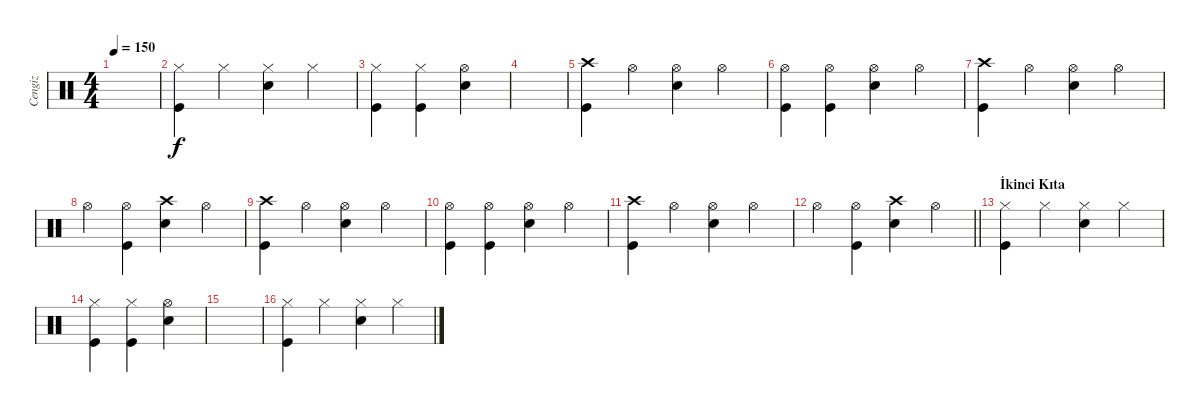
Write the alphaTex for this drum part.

\track ("Cengiz" "Cengiz") {instrument percussion}
\staff {score}
\articulation defaults
\ts (4 4)
\tempo 150
\clef neutral
\ks c
|
("Hi-Hat (closed)" "Kick (hit)").4 "Hi-Hat (closed)".4 ("Hi-Hat (closed)" "Snare (hit) 2").4 "Hi-Hat (closed)".4 |
("Hi-Hat (closed)" "Kick (hit)").4 ("Hi-Hat (closed)" "Kick (hit)").4 ("Hi-Hat (open)" "Snare (hit) 2").4 |
|
("Crash high (hit)" "Kick (hit)").4 "Hi-Hat (open)".4 ("Hi-Hat (open)" "Snare (hit) 2").4 "Hi-Hat (open)".4 |
("Hi-Hat (open)" "Kick (hit)").4 ("Hi-Hat (open)" "Kick (hit)").4 ("Hi-Hat (open)" "Snare (hit) 2").4 "Hi-Hat (open)".4 |
("Crash high (hit)" "Kick (hit)").4 "Hi-Hat (open)".4 ("Hi-Hat (open)" "Snare (hit) 2").4 "Hi-Hat (open)".4 |
"Hi-Hat (open)".4 ("Hi-Hat (open)" "Kick (hit)").4 ("Crash high (hit)" "Snare (hit) 2").4 "Hi-Hat (open)".4 |
("Crash high (hit)" "Kick (hit)").4 "Hi-Hat (open)".4 ("Hi-Hat (open)" "Snare (hit) 2").4 "Hi-Hat (open)".4 |
("Hi-Hat (open)" "Kick (hit)").4 ("Hi-Hat (open)" "Kick (hit)").4 ("Hi-Hat (open)" "Snare (hit) 2").4 "Hi-Hat (open)".4 |
("Crash high (hit)" "Kick (hit)").4 "Hi-Hat (open)".4 ("Hi-Hat (open)" "Snare (hit) 2").4 "Hi-Hat (open)".4 |
\barLineRight lightlight "Hi-Hat (open)".4
("Hi-Hat (open)" "Kick (hit)").4 ("Crash high (hit)" "Snare (hit) 2").4 "Hi-Hat (open)".4 |
\section ("" "İkinci Kıta")
("Hi-Hat (closed)" "Kick (hit)").4 "Hi-Hat (closed)".4 ("Hi-Hat (closed)" "Snare (hit) 2").4 "Hi-Hat (closed)".4 |
("Hi-Hat (closed)" "Kick (hit)").4 ("Hi-Hat (closed)" "Kick (hit)").4 ("Hi-Hat (open)" "Snare (hit) 2").4 |
|
("Hi-Hat (closed)" "Kick (hit)").4 "Hi-Hat (closed)".4 ("Hi-Hat (closed)" "Snare (hit) 2").4 "Hi-Hat (closed)".4
